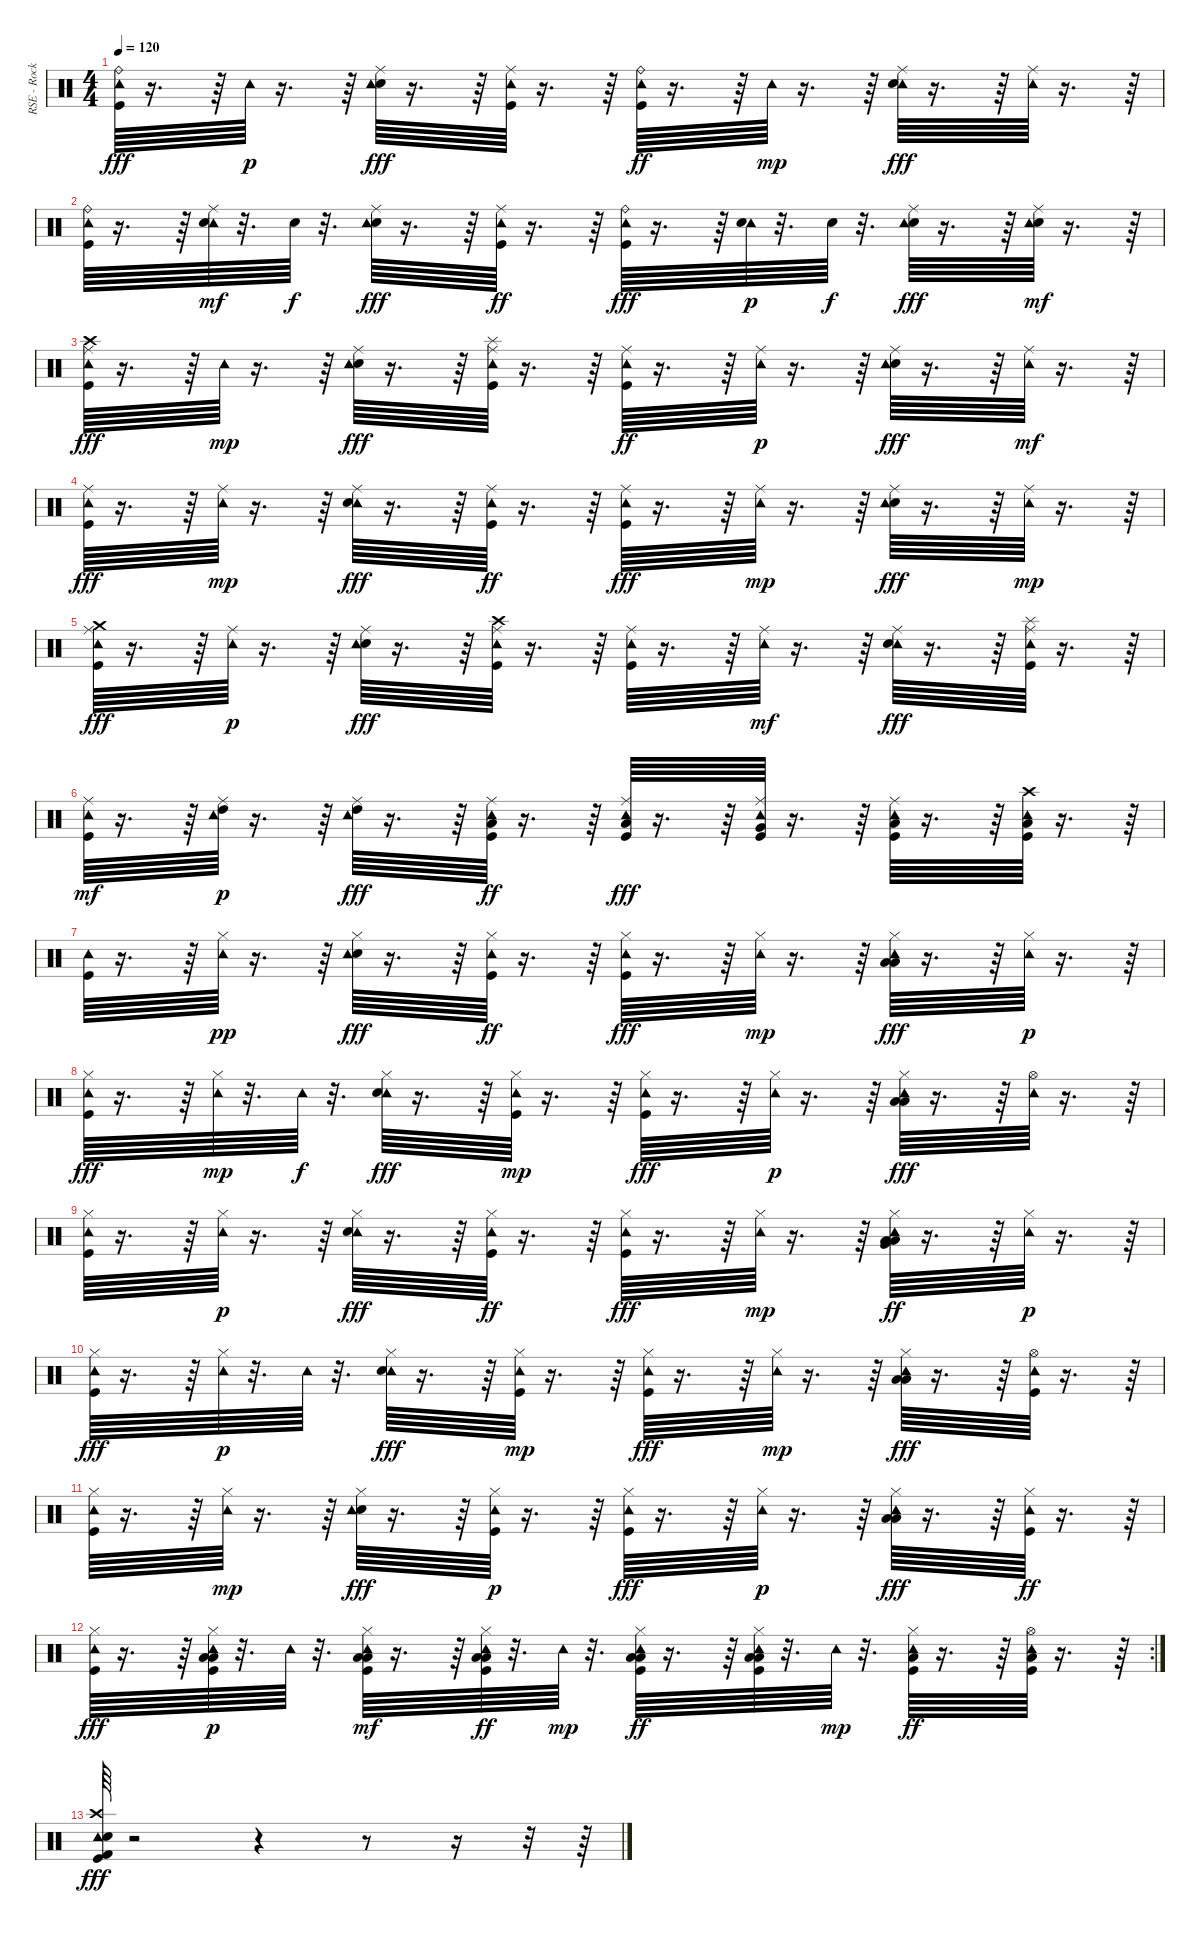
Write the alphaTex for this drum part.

\track ("RSE - Rock Drum Kit" "RSE - Rock") {instrument percussion}
\staff {score}
\articulation defaults
\ts (4 4)
\tempo 120
\clef neutral
\ks c
("Tambourine (hit)" "Kick (hit)" "Ride (bell)").64{dy fff} r.16{d} r.64 "Tambourine (hit)".64{dy p} r.16{d} r.64 ("Metronome (bell)" "Tambourine (hit)" "Ride (middle)").64{dy fff} r.16{d} r.64 ("Tambourine (hit)" "Kick (hit)" "Ride (middle)").64 r.16{d} r.64 ("Tambourine (hit)" "Kick (hit)" "Ride (bell)").64{dy ff} r.16{d} r.64 "Tambourine (hit)".64{dy mp} r.16{d} r.64 ("Tambourine (hit)" "Metronome (bell)" "Ride (middle)").64{dy fff} r.16{d} r.64 ("Tambourine (hit)" "Ride (middle)").64 r.16{d} r.64 |
("Ride (bell)" "Tambourine (hit)" "Kick (hit)").64 r.16{d} r.64 ("Ride (middle)" "Tambourine (hit)" "Metronome (bell)").64{dy mf} r.32{d} "Metronome (bell)".64{dy f} r.32{d} ("Metronome (bell)" "Tambourine (hit)" "Ride (middle)").64{dy fff} r.16{d} r.64 ("Ride (middle)" "Tambourine (hit)" "Kick (hit)").64{dy ff} r.16{d} r.64 ("Tambourine (hit)" "Ride (bell)" "Kick (hit)").64{dy fff} r.16{d} r.64 ("Tambourine (hit)" "Metronome (bell)").64{dy p} r.32{d} "Metronome (bell)".64{dy f} r.32{d} ("Metronome (bell)" "Ride (middle)" "Tambourine (hit)").64{dy fff} r.16{d} r.64 ("Metronome (bell)" "Tambourine (hit)" "Ride (middle)").64{dy mf} r.16{d} r.64 |
("Kick (hit)" "Ride (middle)" "Crash high (hit)" "Tambourine (hit)").64{dy fff} r.16{d} r.64 "Tambourine (hit)".64{dy mp} r.16{d} r.64 ("Metronome (bell)" "Ride (middle)" "Tambourine (hit)").64{dy fff} r.16{d} r.64 ("Tambourine (hit)" "Kick (hit)" "Splash (hit)" "Ride (middle)").64 r.16{d} r.64 ("Ride (middle)" "Kick (hit)" "Tambourine (hit)").64{dy ff} r.16{d} r.64 ("Tambourine (hit)" "Ride (middle)").64{dy p} r.16{d} r.64 ("Metronome (bell)" "Tambourine (hit)" "Ride (middle)").64{dy fff} r.16{d} r.64 ("Tambourine (hit)" "Ride (middle)").64{dy mf} r.16{d} r.64 |
("Tambourine (hit)" "Ride (middle)" "Kick (hit)").64{dy fff} r.16{d} r.64 ("Ride (middle)" "Tambourine (hit)").64{dy mp} r.16{d} r.64 ("Tambourine (hit)" "Metronome (bell)" "Ride (middle)").64{dy fff} r.16{d} r.64 ("Ride (middle)" "Tambourine (hit)" "Kick (hit)").64{dy ff} r.16{d} r.64 ("Tambourine (hit)" "Kick (hit)" "Ride (middle)").64{dy fff} r.16{d} r.64 ("Tambourine (hit)" "Ride (middle)").64{dy mp} r.16{d} r.64 ("Metronome (bell)" "Tambourine (hit)" "Ride (middle)").64{dy fff} r.16{d} r.64 ("Tambourine (hit)" "Ride (middle)").64{dy mp} r.16{d} r.64 |
("Tambourine (hit)" "Kick (hit)" "Crash medium (hit)" "Ride (middle)").64{dy fff} r.16{d} r.64 ("Ride (middle)" "Tambourine (hit)").64{dy p} r.16{d} r.64 ("Metronome (bell)" "Ride (middle)" "Tambourine (hit)").64{dy fff} r.16{d} r.64 ("Kick (hit)" "Tambourine (hit)" "Ride (middle)" "Crash high (hit)").64 r.16{d} r.64 ("Tambourine (hit)" "Kick (hit)" "Ride (middle)").64 r.16{d} r.64 ("Tambourine (hit)" "Ride (middle)").64{dy mf} r.16{d} r.64 ("Tambourine (hit)" "Ride (middle)" "Metronome (bell)").64{dy fff} r.16{d} r.64 ("Kick (hit)" "Tambourine (hit)" "Splash (hit)" "Ride (middle)").64 r.16{d} r.64 |
("Tambourine (hit)" "Kick (hit)" "Ride (middle)").64{dy mf} r.16{d} r.64 ("Ride (middle)" "High Tom (hit)" "Tambourine (hit)").64{dy p} r.16{d} r.64 ("Ride (middle)" "Tambourine (hit)" "High Tom (hit)").64{dy fff} r.16{d} r.64 ("Kick (hit)" "Ride (middle)" "Tambourine (hit)" "Low Tom (hit)").64{dy ff} r.16{d} r.64 ("Tambourine (hit)" "Ride (middle)" "Kick (hit)" "Low Tom (hit)").64{dy fff} r.16{d} r.64 ("Tambourine (hit)" "Ride (middle)" "Very Low Tom (hit)" "Kick (hit)").64 r.16{d} r.64 ("Tambourine (hit)" "Ride (middle)" "Low Floor Tom (hit)" "Kick (hit)").64 r.16{d} r.64 ("Tambourine (hit)" "Crash high (hit)" "Kick (hit)" "Low Floor Tom (hit)").64 r.16{d} r.64 |
("Tambourine (hit)" "Kick (hit)").64 r.16{d} r.64 ("Hi-Hat (closed)" "Tambourine (hit)").64{dy pp} r.16{d} r.64 ("Hi-Hat (closed)" "Metronome (bell)" "Tambourine (hit)").64{dy fff} r.16{d} r.64 ("Hi-Hat (closed)" "Tambourine (hit)" "Kick (hit)").64{dy ff} r.16{d} r.64 ("Hi-Hat (closed)" "Tambourine (hit)" "Kick (hit)").64{dy fff} r.16{d} r.64 ("Tambourine (hit)" "Hi-Hat (closed)").64{dy mp} r.16{d} r.64 ("Hi-Hat (closed)" "Tambourine (hit)" "Low Floor Tom (hit)" "Low Tom (hit)").64{dy fff} r.16{d} r.64 ("Hi-Hat (closed)" "Tambourine (hit)").64{dy p} r.16{d} r.64 |
("Kick (hit)" "Tambourine (hit)" "Hi-Hat (closed)").64{dy fff} r.16{d} r.64 ("Hi-Hat (closed)" "Tambourine (hit)").64{dy mp} r.32{d} "Tambourine (hit)".64{dy f} r.32{d} ("Tambourine (hit)" "Metronome (bell)" "Hi-Hat (closed)").64{dy fff} r.16{d} r.64 ("Kick (hit)" "Hi-Hat (closed)" "Tambourine (hit)").64{dy mp} r.16{d} r.64 ("Tambourine (hit)" "Hi-Hat (closed)" "Kick (hit)").64{dy fff} r.16{d} r.64 ("Tambourine (hit)" "Hi-Hat (closed)").64{dy p} r.16{d} r.64 ("Low Floor Tom (hit)" "Low Tom (hit)" "Hi-Hat (closed)" "Tambourine (hit)").64{dy fff} r.16{d} r.64 ("Tambourine (hit)" "Hi-Hat (open)").64 r.16{d} r.64 |
("Tambourine (hit)" "Hi-Hat (closed)" "Kick (hit)").64 r.16{d} r.64 ("Hi-Hat (closed)" "Tambourine (hit)").64{dy p} r.16{d} r.64 ("Tambourine (hit)" "Hi-Hat (closed)" "Metronome (bell)").64{dy fff} r.16{d} r.64 ("Hi-Hat (closed)" "Tambourine (hit)" "Kick (hit)").64{dy ff} r.16{d} r.64 ("Tambourine (hit)" "Hi-Hat (closed)" "Kick (hit)").64{dy fff} r.16{d} r.64 ("Tambourine (hit)" "Hi-Hat (closed)").64{dy mp} r.16{d} r.64 ("Tambourine (hit)" "Hi-Hat (closed)" "Low Floor Tom (hit)" "Low Tom (hit)" "Very Low Tom (hit)").64{dy ff} r.16{d} r.64 ("Hi-Hat (closed)" "Tambourine (hit)").64{dy p} r.16{d} r.64 |
("Tambourine (hit)" "Hi-Hat (closed)" "Kick (hit)").64{dy fff} r.16{d} r.64 ("Hi-Hat (closed)" "Tambourine (hit)").64{dy p} r.32{d} "Tambourine (hit)".64 r.32{d} ("Tambourine (hit)" "Hi-Hat (closed)" "Metronome (bell)").64{dy fff} r.16{d} r.64 ("Kick (hit)" "Hi-Hat (closed)" "Tambourine (hit)").64{dy mp} r.16{d} r.64 ("Tambourine (hit)" "Hi-Hat (closed)" "Kick (hit)").64{dy fff} r.16{d} r.64 ("Hi-Hat (closed)" "Tambourine (hit)").64{dy mp} r.16{d} r.64 ("Hi-Hat (closed)" "Tambourine (hit)" "Low Tom (hit)" "Low Floor Tom (hit)").64{dy fff} r.16{d} r.64 ("Kick (hit)" "Tambourine (hit)" "Hi-Hat (open)").64 r.16{d} r.64 |
("Tambourine (hit)" "Hi-Hat (closed)" "Kick (hit)").64 r.16{d} r.64 ("Hi-Hat (closed)" "Tambourine (hit)").64{dy mp} r.16{d} r.64 ("Metronome (bell)" "Tambourine (hit)" "Hi-Hat (closed)").64{dy fff} r.16{d} r.64 ("Kick (hit)" "Hi-Hat (closed)" "Tambourine (hit)").64{dy p} r.16{d} r.64 ("Tambourine (hit)" "Hi-Hat (closed)" "Kick (hit)").64{dy fff} r.16{d} r.64 ("Hi-Hat (closed)" "Tambourine (hit)").64{dy p} r.16{d} r.64 ("Tambourine (hit)" "Hi-Hat (closed)" "Low Floor Tom (hit)" "Low Tom (hit)").64{dy fff} r.16{d} r.64 ("Kick (hit)" "Tambourine (hit)" "Hi-Hat (closed)").64{dy ff} r.16{d} r.64 |
\rc 2
("Hi-Hat (closed)" "Kick (hit)" "Tambourine (hit)").64{dy fff} r.16{d} r.64 ("Hi-Hat (closed)" "Low Floor Tom (hit)" "Kick (hit)" "Low Tom (hit)" "Tambourine (hit)").64{dy p} r.32{d} "Tambourine (hit)".64 r.32{d} ("Hi-Hat (closed)" "Tambourine (hit)" "Kick (hit)" "Low Floor Tom (hit)" "Low Tom (hit)").64{dy mf} r.16{d} r.64 ("Hi-Hat (closed)" "Tambourine (hit)" "Kick (hit)" "Low Floor Tom (hit)" "Low Tom (hit)").64{dy ff} r.32{d} "Tambourine (hit)".64{dy mp} r.32{d} ("Tambourine (hit)" "Hi-Hat (closed)" "Kick (hit)" "Low Floor Tom (hit)" "Low Tom (hit)").64{dy ff} r.16{d} r.64 ("Hi-Hat (closed)" "Tambourine (hit)" "Kick (hit)" "Low Tom (hit)" "Low Floor Tom (hit)").64 r.32{d} "Tambourine (hit)".64{dy mp} r.32{d} ("Hi-Hat (closed)" "Tambourine (hit)" "Kick (hit)" "Low Floor Tom (hit)").64{dy ff} r.16{d} r.64 ("Tambourine (hit)" "Hi-Hat (open)" "Low Floor Tom (hit)" "Kick (hit)").64 r.16{d} r.64 |
("Tambourine (hit)" "Crash high (hit)" "Kick (hit)" "Metronome (bell)" "Kick (hit) 2").64{dy fff} r.2 r.4 r.8 r.16 r.32 r.64
